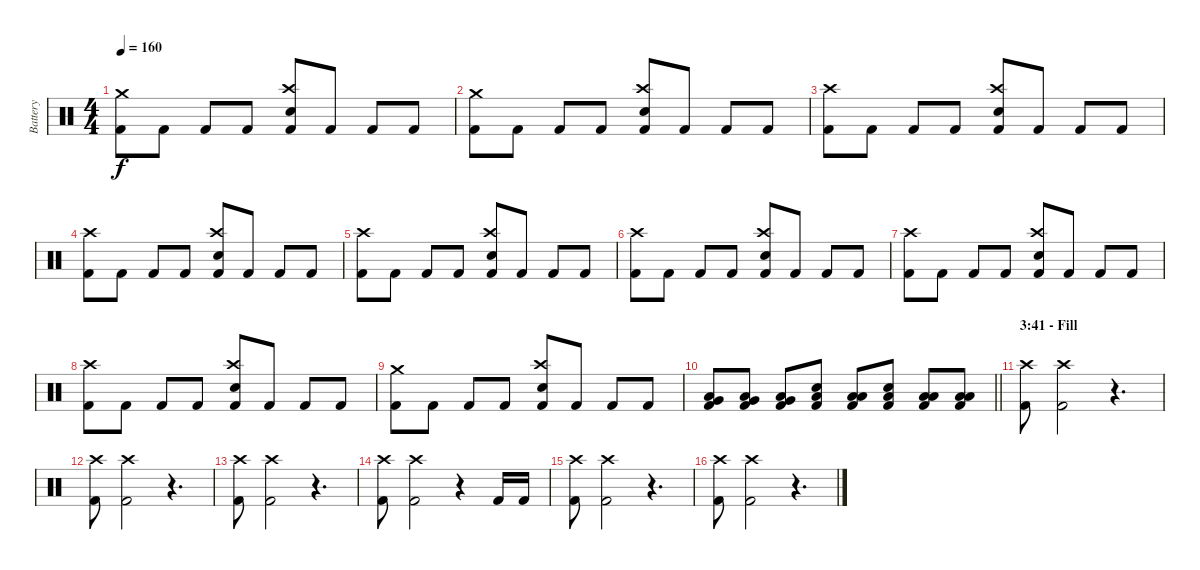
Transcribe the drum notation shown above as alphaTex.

\track ("Battery" "Battery") {instrument percussion}
\staff {score}
\articulation defaults
\ts (4 4)
\tempo 160
\clef neutral
\ks c
("Crash medium (hit)" "Kick (hit) 2").8{dy f} "Kick (hit) 2".8 "Kick (hit) 2".8 "Kick (hit) 2".8 ("Crash high (hit)" "Electric Snare (hit)" "Kick (hit) 2").8 "Kick (hit) 2".8 "Kick (hit) 2".8 "Kick (hit) 2".8 |
("Crash medium (hit)" "Kick (hit) 2").8 "Kick (hit) 2".8 "Kick (hit) 2".8 "Kick (hit) 2".8 ("Crash high (hit)" "Electric Snare (hit)" "Kick (hit) 2").8 "Kick (hit) 2".8 "Kick (hit) 2".8 "Kick (hit) 2".8 |
("Crash high (hit)" "Kick (hit) 2").8 "Kick (hit) 2".8 "Kick (hit) 2".8 "Kick (hit) 2".8 ("Crash high (hit)" "Electric Snare (hit)" "Kick (hit) 2").8 "Kick (hit) 2".8 "Kick (hit) 2".8 "Kick (hit) 2".8 |
("Crash high (hit)" "Kick (hit) 2").8 "Kick (hit) 2".8 "Kick (hit) 2".8 "Kick (hit) 2".8 ("Crash high (hit)" "Electric Snare (hit)" "Kick (hit) 2").8 "Kick (hit) 2".8 "Kick (hit) 2".8 "Kick (hit) 2".8 |
("Crash high (hit)" "Kick (hit) 2").8 "Kick (hit) 2".8 "Kick (hit) 2".8 "Kick (hit) 2".8 ("Crash high (hit)" "Electric Snare (hit)" "Kick (hit) 2").8 "Kick (hit) 2".8 "Kick (hit) 2".8 "Kick (hit) 2".8 |
("Crash high (hit)" "Kick (hit) 2").8 "Kick (hit) 2".8 "Kick (hit) 2".8 "Kick (hit) 2".8 ("Crash high (hit)" "Electric Snare (hit)" "Kick (hit) 2").8 "Kick (hit) 2".8 "Kick (hit) 2".8 "Kick (hit) 2".8 |
("Crash high (hit)" "Kick (hit) 2").8 "Kick (hit) 2".8 "Kick (hit) 2".8 "Kick (hit) 2".8 ("Crash high (hit)" "Electric Snare (hit)" "Kick (hit) 2").8 "Kick (hit) 2".8 "Kick (hit) 2".8 "Kick (hit) 2".8 |
("Crash high (hit)" "Kick (hit) 2").8 "Kick (hit) 2".8 "Kick (hit) 2".8 "Kick (hit) 2".8 ("Crash high (hit)" "Electric Snare (hit)" "Kick (hit) 2").8 "Kick (hit) 2".8 "Kick (hit) 2".8 "Kick (hit) 2".8 |
("Crash medium (hit)" "Kick (hit) 2").8 "Kick (hit) 2".8 "Kick (hit) 2".8 "Kick (hit) 2".8 ("Crash high (hit)" "Electric Snare (hit)" "Kick (hit) 2").8 "Kick (hit) 2".8 "Kick (hit) 2".8 "Kick (hit) 2".8 |
\barLineRight lightlight
("Very Low Tom (hit)" "Low Floor Tom (hit)" "Kick (hit) 2").8 ("Very Low Tom (hit)" "Low Floor Tom (hit)" "Kick (hit) 2").8 ("Low Floor Tom (hit)" "Very Low Tom (hit)" "Kick (hit) 2").8 ("Low Floor Tom (hit)" "Electric Snare (hit)" "Kick (hit) 2").8 ("Low Floor Tom (hit)" "Low Floor Tom (hit)" "Kick (hit) 2").8 ("Low Floor Tom (hit)" "Electric Snare (hit)" "Kick (hit) 2").8 ("Low Floor Tom (hit)" "Low Floor Tom (hit)" "Kick (hit) 2").8 ("Low Floor Tom (hit)" "Low Floor Tom (hit)" "Kick (hit) 2").8 |
\section ("" "3:41 - Fill")
("Crash high (hit)" "Kick (hit) 2").8 ("Crash high (hit)" "Kick (hit) 2").2 r.4{d} |
("Crash high (hit)" "Kick (hit) 2").8 ("Crash high (hit)" "Kick (hit) 2").2 r.4{d} |
("Crash high (hit)" "Kick (hit) 2").8 ("Crash high (hit)" "Kick (hit) 2").2 r.4{d} |
("Crash high (hit)" "Kick (hit) 2").8 ("Crash high (hit)" "Kick (hit) 2").2 r.4 "Kick (hit) 2".16 "Kick (hit) 2".16 |
("Crash high (hit)" "Kick (hit) 2").8 ("Crash high (hit)" "Kick (hit) 2").2 r.4{d} |
("Crash high (hit)" "Kick (hit) 2").8 ("Crash high (hit)" "Kick (hit) 2").2 r.4{d}
